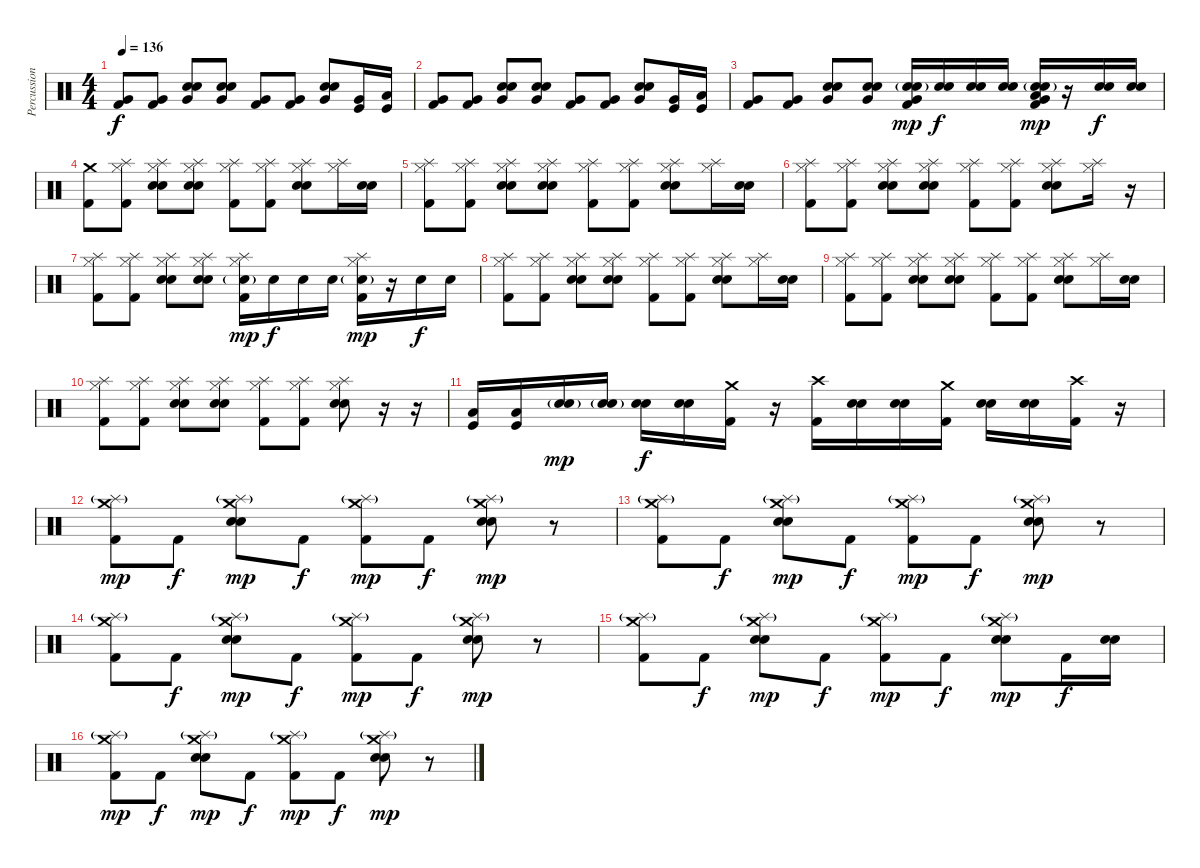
\track ("Percussion" "Percussion") {instrument percussion}
\staff {score}
\articulation defaults
\ts (4 4)
\tempo 136
\clef neutral
\ks c
("Very Low Tom (hit)" "Kick (hit) 2").8{dy f} ("Very Low Tom (hit)" "Kick (hit) 2").8 ("Electric Snare (hit)" "Snare (hit) 2" "Very Low Tom (hit)").8 ("Electric Snare (hit)" "Snare (hit) 2" "Very Low Tom (hit)").8 ("Very Low Tom (hit)" "Kick (hit) 2").8 ("Very Low Tom (hit)" "Kick (hit) 2").8 ("Snare (hit) 2" "Electric Snare (hit)" "Very Low Tom (hit)").8 ("Very Low Tom (hit)" "Kick (hit)").16 ("Low Floor Tom (hit)" "Kick (hit)").16 |
("Very Low Tom (hit)" "Kick (hit) 2").8 ("Very Low Tom (hit)" "Kick (hit) 2").8 ("Electric Snare (hit)" "Snare (hit) 2" "Very Low Tom (hit)").8 ("Electric Snare (hit)" "Snare (hit) 2" "Very Low Tom (hit)").8 ("Very Low Tom (hit)" "Kick (hit) 2").8 ("Very Low Tom (hit)" "Kick (hit) 2").8 ("Snare (hit) 2" "Electric Snare (hit)" "Very Low Tom (hit)").8 ("Very Low Tom (hit)" "Kick (hit)").16 ("Low Floor Tom (hit)" "Kick (hit)").16 |
("Very Low Tom (hit)" "Kick (hit) 2").8 ("Very Low Tom (hit)" "Kick (hit) 2").8 ("Electric Snare (hit)" "Snare (hit) 2" "Very Low Tom (hit)").8 ("Electric Snare (hit)" "Snare (hit) 2" "Very Low Tom (hit)").8 ("Very Low Tom (hit)" "Snare (hit) 2"{g} "Electric Snare (hit)"{g} "Kick (hit) 2").16{dy mp} ("Snare (hit) 2" "Electric Snare (hit)").16{dy f} ("Snare (hit) 2" "Electric Snare (hit)").16 ("Snare (hit) 2" "Electric Snare (hit)").16 ("Low Floor Tom (hit)" "Very Low Tom (hit)" "Snare (hit) 2"{g} "Electric Snare (hit)"{g} "Kick (hit) 2").16{dy mp} r.16 ("Snare (hit) 2" "Electric Snare (hit)").16{dy f} ("Snare (hit) 2" "Electric Snare (hit)").16 |
("Crash medium (hit)" "Kick (hit) 2").8 ("Hi-Hat (closed)" "Splash (hit)" "Kick (hit) 2").8 ("Hi-Hat (closed)" "Splash (hit)" "Electric Snare (hit)" "Snare (hit) 2").8 ("Hi-Hat (closed)" "Splash (hit)" "Electric Snare (hit)" "Snare (hit) 2").8 ("Hi-Hat (closed)" "Splash (hit)" "Kick (hit) 2").8 ("Hi-Hat (closed)" "Splash (hit)" "Kick (hit) 2").8 ("Hi-Hat (closed)" "Splash (hit)" "Electric Snare (hit)" "Snare (hit) 2").8 ("Hi-Hat (closed)" "Splash (hit)").16 ("Electric Snare (hit)" "Snare (hit) 2").16 |
("Hi-Hat (closed)" "Splash (hit)" "Kick (hit) 2").8 ("Hi-Hat (closed)" "Splash (hit)" "Kick (hit) 2").8 ("Hi-Hat (closed)" "Splash (hit)" "Electric Snare (hit)" "Snare (hit) 2").8 ("Hi-Hat (closed)" "Splash (hit)" "Electric Snare (hit)" "Snare (hit) 2").8 ("Hi-Hat (closed)" "Splash (hit)" "Kick (hit) 2").8 ("Hi-Hat (closed)" "Splash (hit)" "Kick (hit) 2").8 ("Hi-Hat (closed)" "Splash (hit)" "Electric Snare (hit)" "Snare (hit) 2").8 ("Hi-Hat (closed)" "Splash (hit)").16 ("Electric Snare (hit)" "Snare (hit) 2").16 |
("Hi-Hat (closed)" "Splash (hit)" "Kick (hit) 2").8 ("Hi-Hat (closed)" "Splash (hit)" "Kick (hit) 2").8 ("Hi-Hat (closed)" "Splash (hit)" "Electric Snare (hit)" "Snare (hit) 2").8 ("Hi-Hat (closed)" "Splash (hit)" "Electric Snare (hit)" "Snare (hit) 2").8 ("Hi-Hat (closed)" "Splash (hit)" "Kick (hit) 2").8 ("Hi-Hat (closed)" "Splash (hit)" "Kick (hit) 2").8 ("Hi-Hat (closed)" "Splash (hit)" "Electric Snare (hit)" "Snare (hit) 2").8 ("Hi-Hat (closed)" "Splash (hit)").16 r.16 |
("Hi-Hat (closed)" "Splash (hit)" "Kick (hit) 2").8 ("Hi-Hat (closed)" "Splash (hit)" "Kick (hit) 2").8 ("Hi-Hat (closed)" "Splash (hit)" "Electric Snare (hit)" "Snare (hit) 2").8 ("Hi-Hat (closed)" "Splash (hit)" "Electric Snare (hit)" "Snare (hit) 2").8 ("Hi-Hat (closed)" "Splash (hit)" "Snare (hit) 2"{g} "Kick (hit) 2").16{dy mp} "Snare (hit) 2".16{dy f} "Snare (hit) 2".16 "Snare (hit) 2".16 ("Hi-Hat (closed)" "Splash (hit)" "Snare (hit) 2"{g} "Kick (hit) 2").16{dy mp} r.16 "Snare (hit) 2".16{dy f} "Snare (hit) 2".16 |
("Hi-Hat (closed)" "Splash (hit)" "Kick (hit) 2").8 ("Hi-Hat (closed)" "Splash (hit)" "Kick (hit) 2").8 ("Hi-Hat (closed)" "Splash (hit)" "Electric Snare (hit)" "Snare (hit) 2").8 ("Hi-Hat (closed)" "Splash (hit)" "Electric Snare (hit)" "Snare (hit) 2").8 ("Hi-Hat (closed)" "Splash (hit)" "Kick (hit) 2").8 ("Hi-Hat (closed)" "Splash (hit)" "Kick (hit) 2").8 ("Hi-Hat (closed)" "Splash (hit)" "Electric Snare (hit)" "Snare (hit) 2").8 ("Hi-Hat (closed)" "Splash (hit)").16 ("Electric Snare (hit)" "Snare (hit) 2").16 |
("Hi-Hat (closed)" "Splash (hit)" "Kick (hit) 2").8 ("Hi-Hat (closed)" "Splash (hit)" "Kick (hit) 2").8 ("Hi-Hat (closed)" "Splash (hit)" "Electric Snare (hit)" "Snare (hit) 2").8 ("Hi-Hat (closed)" "Splash (hit)" "Electric Snare (hit)" "Snare (hit) 2").8 ("Hi-Hat (closed)" "Splash (hit)" "Kick (hit) 2").8 ("Hi-Hat (closed)" "Splash (hit)" "Kick (hit) 2").8 ("Hi-Hat (closed)" "Splash (hit)" "Electric Snare (hit)" "Snare (hit) 2").8 ("Hi-Hat (closed)" "Splash (hit)").16 ("Electric Snare (hit)" "Snare (hit) 2").16 |
("Hi-Hat (closed)" "Splash (hit)" "Kick (hit) 2").8 ("Hi-Hat (closed)" "Splash (hit)" "Kick (hit) 2").8 ("Hi-Hat (closed)" "Splash (hit)" "Electric Snare (hit)" "Snare (hit) 2").8 ("Hi-Hat (closed)" "Splash (hit)" "Electric Snare (hit)" "Snare (hit) 2").8 ("Hi-Hat (closed)" "Splash (hit)" "Kick (hit) 2").8 ("Hi-Hat (closed)" "Splash (hit)" "Kick (hit) 2").8 ("Hi-Hat (closed)" "Splash (hit)" "Electric Snare (hit)" "Snare (hit) 2").8 r.16 r.16 |
("Low Tom (hit)" "Kick (hit)").16 ("Low Tom (hit)" "Kick (hit)").16 ("Electric Snare (hit)"{g} "Snare (hit) 2"{g}).16{dy mp} ("Electric Snare (hit)"{g} "Snare (hit) 2").16 ("Electric Snare (hit)" "Snare (hit) 2").16{dy f} ("Electric Snare (hit)" "Snare (hit) 2").16 ("Crash medium (hit)" "Kick (hit) 2").16 r.16 ("Crash high (hit)" "Kick (hit) 2").16 ("Snare (hit) 2" "Electric Snare (hit)").16 ("Snare (hit) 2" "Electric Snare (hit)").16 ("Crash medium (hit)" "Kick (hit) 2").16 ("Snare (hit) 2" "Electric Snare (hit)").16 ("Snare (hit) 2" "Electric Snare (hit)").16 ("Crash high (hit)" "Kick (hit) 2").16 r.16 |
("Splash (hit)"{g} "Crash medium (hit)" "Kick (hit) 2").8{dy mp} "Kick (hit) 2".8{dy f} ("Splash (hit)"{g} "Crash medium (hit)" "Snare (hit) 2" "Electric Snare (hit)").8{dy mp} "Kick (hit) 2".8{dy f} ("Splash (hit)"{g} "Crash medium (hit)" "Kick (hit) 2").8{dy mp} "Kick (hit) 2".8{dy f} ("Splash (hit)"{g} "Crash medium (hit)" "Snare (hit) 2" "Electric Snare (hit)").8{dy mp} r.8 |
("Splash (hit)"{g} "Crash medium (hit)" "Kick (hit) 2").8 "Kick (hit) 2".8{dy f} ("Splash (hit)"{g} "Crash medium (hit)" "Snare (hit) 2" "Electric Snare (hit)").8{dy mp} "Kick (hit) 2".8{dy f} ("Splash (hit)"{g} "Crash medium (hit)" "Kick (hit) 2").8{dy mp} "Kick (hit) 2".8{dy f} ("Splash (hit)"{g} "Crash medium (hit)" "Snare (hit) 2" "Electric Snare (hit)").8{dy mp} r.8 |
("Splash (hit)"{g} "Crash medium (hit)" "Kick (hit) 2").8 "Kick (hit) 2".8{dy f} ("Splash (hit)"{g} "Crash medium (hit)" "Snare (hit) 2" "Electric Snare (hit)").8{dy mp} "Kick (hit) 2".8{dy f} ("Splash (hit)"{g} "Crash medium (hit)" "Kick (hit) 2").8{dy mp} "Kick (hit) 2".8{dy f} ("Splash (hit)"{g} "Crash medium (hit)" "Snare (hit) 2" "Electric Snare (hit)").8{dy mp} r.8 |
("Splash (hit)"{g} "Crash medium (hit)" "Kick (hit) 2").8 "Kick (hit) 2".8{dy f} ("Splash (hit)"{g} "Crash medium (hit)" "Snare (hit) 2" "Electric Snare (hit)").8{dy mp} "Kick (hit) 2".8{dy f} ("Splash (hit)"{g} "Crash medium (hit)" "Kick (hit) 2").8{dy mp} "Kick (hit) 2".8{dy f} ("Splash (hit)"{g} "Crash medium (hit)" "Snare (hit) 2" "Electric Snare (hit)").8{dy mp} "Kick (hit) 2".16{dy f} ("Snare (hit) 2" "Electric Snare (hit)").16 |
("Splash (hit)"{g} "Crash medium (hit)" "Kick (hit) 2").8{dy mp} "Kick (hit) 2".8{dy f} ("Splash (hit)"{g} "Crash medium (hit)" "Snare (hit) 2" "Electric Snare (hit)").8{dy mp} "Kick (hit) 2".8{dy f} ("Splash (hit)"{g} "Crash medium (hit)" "Kick (hit) 2").8{dy mp} "Kick (hit) 2".8{dy f} ("Splash (hit)"{g} "Crash medium (hit)" "Snare (hit) 2" "Electric Snare (hit)").8{dy mp} r.8
